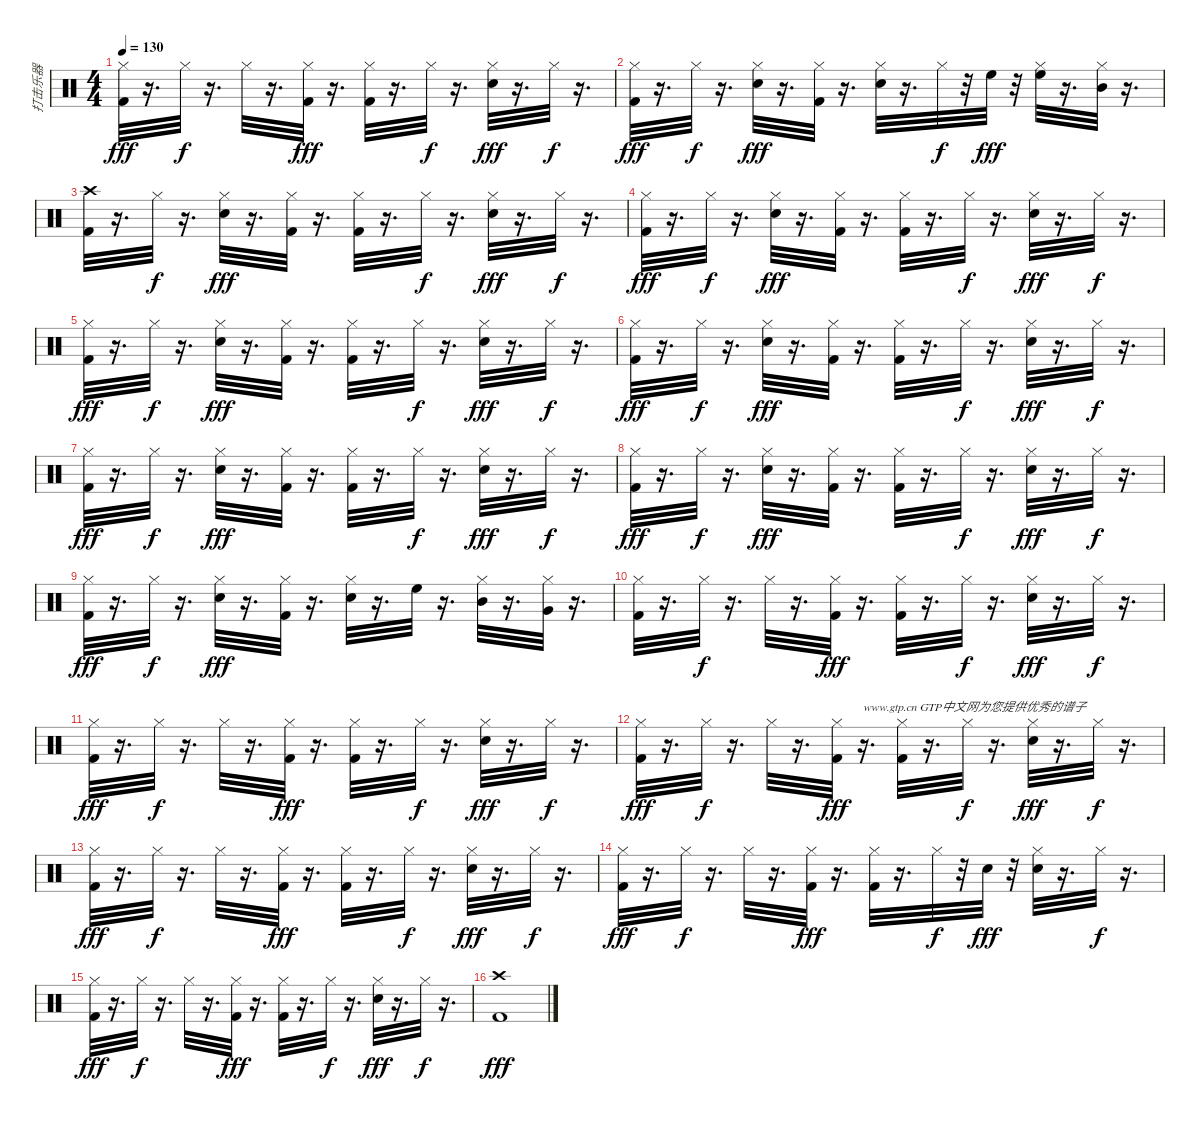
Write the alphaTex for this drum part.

\track ("打击乐器" "打击乐器") {instrument percussion}
\staff {score}
\articulation defaults
\ts (4 4)
\tempo 130
\clef neutral
\ks c
("Hi-Hat (closed)" "Kick (hit) 2").32{dy fff} r.16{d} "Hi-Hat (closed)".32{dy f} r.16{d} "Hi-Hat (closed)".32 r.16{d} ("Kick (hit) 2" "Hi-Hat (closed)").32{dy fff} r.16{d} ("Kick (hit) 2" "Hi-Hat (closed)").32 r.16{d} "Hi-Hat (closed)".32{dy f} r.16{d} ("Hi-Hat (closed)" "Electric Snare (hit)").32{dy fff} r.16{d} "Hi-Hat (closed)".32{dy f} r.16{d} |
("Kick (hit) 2" "Hi-Hat (closed)").32{dy fff} r.16{d} "Hi-Hat (closed)".32{dy f} r.16{d} ("Electric Snare (hit)" "Hi-Hat (closed)").32{dy fff} r.16{d} ("Kick (hit) 2" "Hi-Hat (closed)").32 r.16{d} ("Electric Snare (hit)" "Hi-Hat (closed)").32 r.16{d} "Hi-Hat (closed)".32{dy f} r.32 "High Floor Tom (hit)".32{dy fff} r.32 ("High Floor Tom (hit)" "Hi-Hat (closed)").32 r.16{d} ("Mid Tom (hit)" "Hi-Hat (closed)").32 r.16{d} |
("Crash high (hit)" "Kick (hit) 2").32 r.16{d} "Hi-Hat (closed)".32{dy f} r.16{d} ("Hi-Hat (closed)" "Electric Snare (hit)").32{dy fff} r.16{d} ("Kick (hit) 2" "Hi-Hat (closed)").32 r.16{d} ("Kick (hit) 2" "Hi-Hat (closed)").32 r.16{d} "Hi-Hat (closed)".32{dy f} r.16{d} ("Hi-Hat (closed)" "Electric Snare (hit)").32{dy fff} r.16{d} "Hi-Hat (closed)".32{dy f} r.16{d} |
("Kick (hit) 2" "Hi-Hat (closed)").32{dy fff} r.16{d} "Hi-Hat (closed)".32{dy f} r.16{d} ("Hi-Hat (closed)" "Electric Snare (hit)").32{dy fff} r.16{d} ("Kick (hit) 2" "Hi-Hat (closed)").32 r.16{d} ("Kick (hit) 2" "Hi-Hat (closed)").32 r.16{d} "Hi-Hat (closed)".32{dy f} r.16{d} ("Hi-Hat (closed)" "Electric Snare (hit)").32{dy fff} r.16{d} "Hi-Hat (closed)".32{dy f} r.16{d} |
("Kick (hit) 2" "Hi-Hat (closed)").32{dy fff} r.16{d} "Hi-Hat (closed)".32{dy f} r.16{d} ("Hi-Hat (closed)" "Electric Snare (hit)").32{dy fff} r.16{d} ("Kick (hit) 2" "Hi-Hat (closed)").32 r.16{d} ("Kick (hit) 2" "Hi-Hat (closed)").32 r.16{d} "Hi-Hat (closed)".32{dy f} r.16{d} ("Hi-Hat (closed)" "Electric Snare (hit)").32{dy fff} r.16{d} "Hi-Hat (closed)".32{dy f} r.16{d} |
("Kick (hit) 2" "Hi-Hat (closed)").32{dy fff} r.16{d} "Hi-Hat (closed)".32{dy f} r.16{d} ("Hi-Hat (closed)" "Electric Snare (hit)").32{dy fff} r.16{d} ("Kick (hit) 2" "Hi-Hat (closed)").32 r.16{d} ("Kick (hit) 2" "Hi-Hat (closed)").32 r.16{d} "Hi-Hat (closed)".32{dy f} r.16{d} ("Hi-Hat (closed)" "Electric Snare (hit)").32{dy fff} r.16{d} "Hi-Hat (closed)".32{dy f} r.16{d} |
("Kick (hit) 2" "Hi-Hat (closed)").32{dy fff} r.16{d} "Hi-Hat (closed)".32{dy f} r.16{d} ("Hi-Hat (closed)" "Electric Snare (hit)").32{dy fff} r.16{d} ("Kick (hit) 2" "Hi-Hat (closed)").32 r.16{d} ("Kick (hit) 2" "Hi-Hat (closed)").32 r.16{d} "Hi-Hat (closed)".32{dy f} r.16{d} ("Hi-Hat (closed)" "Electric Snare (hit)").32{dy fff} r.16{d} "Hi-Hat (closed)".32{dy f} r.16{d} |
("Kick (hit) 2" "Hi-Hat (closed)").32{dy fff} r.16{d} "Hi-Hat (closed)".32{dy f} r.16{d} ("Hi-Hat (closed)" "Electric Snare (hit)").32{dy fff} r.16{d} ("Kick (hit) 2" "Hi-Hat (closed)").32 r.16{d} ("Kick (hit) 2" "Hi-Hat (closed)").32 r.16{d} "Hi-Hat (closed)".32{dy f} r.16{d} ("Hi-Hat (closed)" "Electric Snare (hit)").32{dy fff} r.16{d} "Hi-Hat (closed)".32{dy f} r.16{d} |
("Hi-Hat (closed)" "Kick (hit) 2").32{dy fff} r.16{d} "Hi-Hat (closed)".32{dy f} r.16{d} ("Hi-Hat (closed)" "Electric Snare (hit)").32{dy fff} r.16{d} ("Kick (hit) 2" "Hi-Hat (closed)").32 r.16{d} ("Electric Snare (hit)" "Hi-Hat (closed)").32 r.16{d} "High Floor Tom (hit)".32 r.16{d} ("Hi-Hat (closed)" "Mid Tom (hit)").32 r.16{d} ("Very Low Tom (hit)" "Hi-Hat (closed)").32 r.16{d} |
("Kick (hit) 2" "Hi-Hat (closed)").32 r.16{d} "Hi-Hat (closed)".32{dy f} r.16{d} "Hi-Hat (closed)".32 r.16{d} ("Kick (hit) 2" "Hi-Hat (closed)").32{dy fff} r.16{d} ("Kick (hit) 2" "Hi-Hat (closed)").32 r.16{d} "Hi-Hat (closed)".32{dy f} r.16{d} ("Hi-Hat (closed)" "Electric Snare (hit)").32{dy fff} r.16{d} "Hi-Hat (closed)".32{dy f} r.16{d} |
("Kick (hit) 2" "Hi-Hat (closed)").32{dy fff} r.16{d} "Hi-Hat (closed)".32{dy f} r.16{d} "Hi-Hat (closed)".32 r.16{d} ("Kick (hit) 2" "Hi-Hat (closed)").32{dy fff} r.16{d} ("Kick (hit) 2" "Hi-Hat (closed)").32 r.16{d} "Hi-Hat (closed)".32{dy f} r.16{d} ("Hi-Hat (closed)" "Electric Snare (hit)").32{dy fff} r.16{d} "Hi-Hat (closed)".32{dy f} r.16{d} |
("Kick (hit) 2" "Hi-Hat (closed)").32{dy fff} r.16{d} "Hi-Hat (closed)".32{dy f} r.16{d} "Hi-Hat (closed)".32 r.16{d} ("Kick (hit) 2" "Hi-Hat (closed)").32{dy fff} r.16{d txt "www.gtp.cn GTP中文网为您提供优秀的谱子"} ("Kick (hit) 2" "Hi-Hat (closed)").32 r.16{d} "Hi-Hat (closed)".32{dy f} r.16{d} ("Hi-Hat (closed)" "Electric Snare (hit)").32{dy fff} r.16{d} "Hi-Hat (closed)".32{dy f} r.16{d} |
("Kick (hit) 2" "Hi-Hat (closed)").32{dy fff} r.16{d} "Hi-Hat (closed)".32{dy f} r.16{d} "Hi-Hat (closed)".32 r.16{d} ("Kick (hit) 2" "Hi-Hat (closed)").32{dy fff} r.16{d} ("Kick (hit) 2" "Hi-Hat (closed)").32 r.16{d} "Hi-Hat (closed)".32{dy f} r.16{d} ("Hi-Hat (closed)" "Electric Snare (hit)").32{dy fff} r.16{d} "Hi-Hat (closed)".32{dy f} r.16{d} |
("Hi-Hat (closed)" "Kick (hit) 2").32{dy fff} r.16{d} "Hi-Hat (closed)".32{dy f} r.16{d} "Hi-Hat (closed)".32 r.16{d} ("Kick (hit) 2" "Hi-Hat (closed)").32{dy fff} r.16{d} ("Kick (hit) 2" "Hi-Hat (closed)").32 r.16{d} "Hi-Hat (closed)".32{dy f} r.32 "Electric Snare (hit)".32{dy fff} r.32 ("Electric Snare (hit)" "Hi-Hat (closed)").32 r.16{d} "Hi-Hat (closed)".32{dy f} r.16{d} |
("Hi-Hat (closed)" "Kick (hit) 2").32{dy fff} r.16{d} "Hi-Hat (closed)".32{dy f} r.16{d} "Hi-Hat (closed)".32 r.16{d} ("Kick (hit) 2" "Hi-Hat (closed)").32{dy fff} r.16{d} ("Kick (hit) 2" "Hi-Hat (closed)").32 r.16{d} "Hi-Hat (closed)".32{dy f} r.16{d} ("Hi-Hat (closed)" "Electric Snare (hit)").32{dy fff} r.16{d} "Hi-Hat (closed)".32{dy f} r.16{d} |
("Crash high (hit)" "Kick (hit) 2").1{dy fff}
